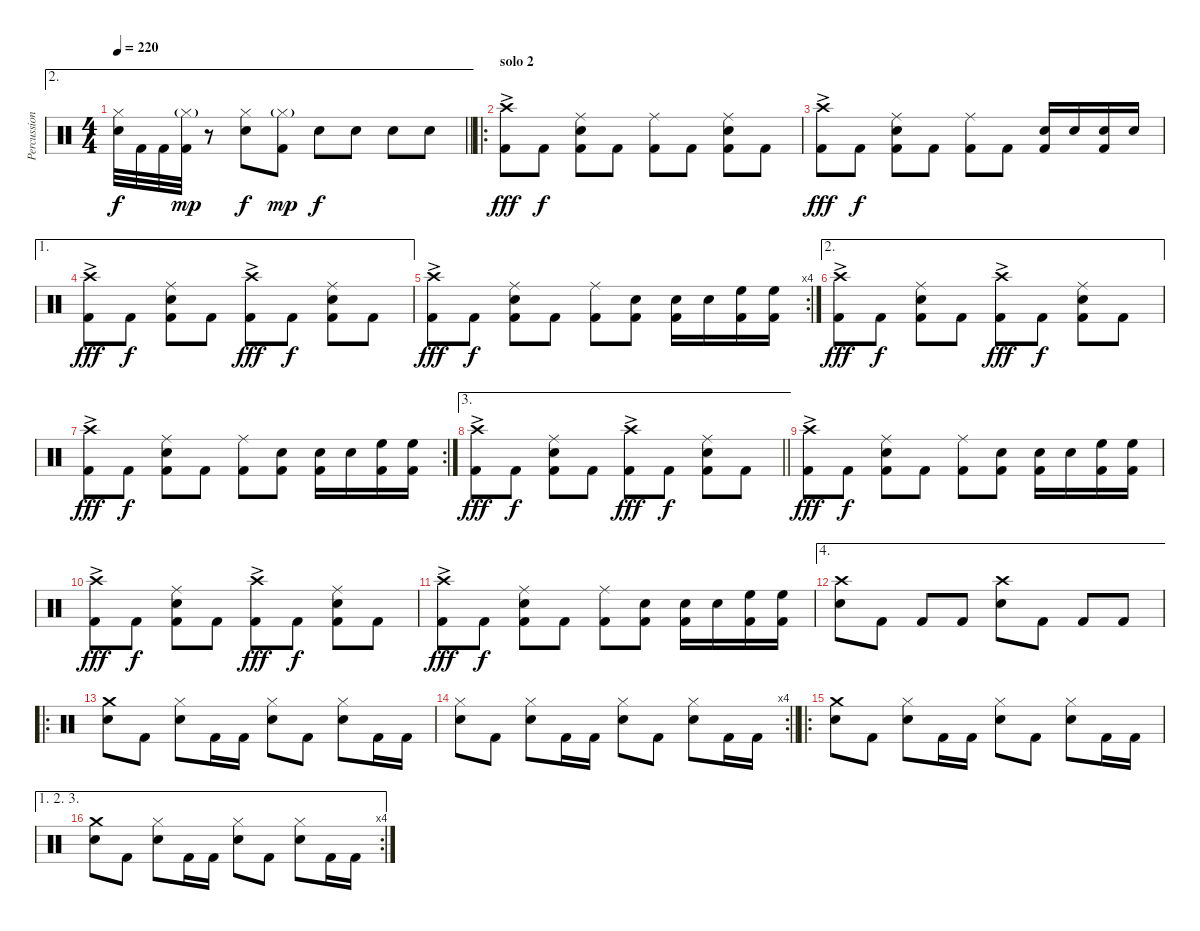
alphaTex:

\track ("Percussion" "Percussion") {instrument percussion}
\staff {score}
\articulation defaults
\ae 2
\ts (4 4)
\tempo 220
\clef neutral
\barLineRight lightlight
\ks c
("Hi-Hat (closed)" "Electric Snare (hit)").32{dy f} "Kick (hit) 2".32 "Kick (hit) 2".32 ("Hi-Hat (closed)"{g} "Kick (hit) 2").32{dy mp} r.8 ("Hi-Hat (closed)" "Electric Snare (hit)").8{dy f} ("Hi-Hat (closed)"{g} "Kick (hit) 2").8{dy mp} "Electric Snare (hit)".8{dy f} "Electric Snare (hit)".8 "Electric Snare (hit)".8 "Electric Snare (hit)".8 |
\ro
\section ("" "solo 2")
("Crash high (hit)"{ac} "Kick (hit) 2").8{dy fff} "Kick (hit) 2".8{dy f} ("Ride (middle)" "Electric Snare (hit)" "Kick (hit) 2").8 "Kick (hit) 2".8 ("Ride (middle)" "Kick (hit) 2").8 "Kick (hit) 2".8 ("Ride (middle)" "Electric Snare (hit)" "Kick (hit) 2").8 "Kick (hit) 2".8 |
("Crash high (hit)"{ac} "Kick (hit) 2").8{dy fff} "Kick (hit) 2".8{dy f} ("Ride (middle)" "Electric Snare (hit)" "Kick (hit) 2").8 "Kick (hit) 2".8 ("Ride (middle)" "Kick (hit) 2").8 "Kick (hit) 2".8 ("Electric Snare (hit)" "Kick (hit) 2").16 "Electric Snare (hit)".16 ("Electric Snare (hit)" "Kick (hit) 2").16 "Electric Snare (hit)".16 |
\ae 1
("Crash high (hit)"{ac} "Kick (hit) 2").8{dy fff} "Kick (hit) 2".8{dy f} ("Ride (middle)" "Electric Snare (hit)" "Kick (hit) 2").8 "Kick (hit) 2".8 ("Crash high (hit)"{ac} "Kick (hit) 2").8{dy fff} "Kick (hit) 2".8{dy f} ("Ride (middle)" "Electric Snare (hit)" "Kick (hit) 2").8 "Kick (hit) 2".8 |
\rc 4
("Crash high (hit)"{ac} "Kick (hit) 2").8{dy fff} "Kick (hit) 2".8{dy f} ("Ride (middle)" "Electric Snare (hit)" "Kick (hit) 2").8 "Kick (hit) 2".8 ("Ride (middle)" "Kick (hit) 2").8 ("Electric Snare (hit)" "Kick (hit) 2").8 ("Electric Snare (hit)" "Kick (hit) 2").16 "Electric Snare (hit)".16 ("High Floor Tom (hit)" "Kick (hit) 2").16 ("High Floor Tom (hit)" "Kick (hit) 2").16 |
\ae 2
("Crash high (hit)"{ac} "Kick (hit) 2").8{dy fff} "Kick (hit) 2".8{dy f} ("Ride (middle)" "Electric Snare (hit)" "Kick (hit) 2").8 "Kick (hit) 2".8 ("Crash high (hit)"{ac} "Kick (hit) 2").8{dy fff} "Kick (hit) 2".8{dy f} ("Ride (middle)" "Electric Snare (hit)" "Kick (hit) 2").8 "Kick (hit) 2".8 |
\rc 2
("Crash high (hit)"{ac} "Kick (hit) 2").8{dy fff} "Kick (hit) 2".8{dy f} ("Ride (middle)" "Electric Snare (hit)" "Kick (hit) 2").8 "Kick (hit) 2".8 ("Ride (middle)" "Kick (hit) 2").8 ("Electric Snare (hit)" "Kick (hit) 2").8 ("Electric Snare (hit)" "Kick (hit) 2").16 "Electric Snare (hit)".16 ("High Floor Tom (hit)" "Kick (hit) 2").16 ("High Floor Tom (hit)" "Kick (hit) 2").16 |
\ae 3
\barLineRight lightlight
("Crash high (hit)"{ac} "Kick (hit) 2").8{dy fff} "Kick (hit) 2".8{dy f} ("Ride (middle)" "Electric Snare (hit)" "Kick (hit) 2").8 "Kick (hit) 2".8 ("Crash high (hit)"{ac} "Kick (hit) 2").8{dy fff} "Kick (hit) 2".8{dy f} ("Ride (middle)" "Electric Snare (hit)" "Kick (hit) 2").8 "Kick (hit) 2".8 |
\section ("" "")
("Crash high (hit)"{ac} "Kick (hit) 2").8{dy fff} "Kick (hit) 2".8{dy f} ("Ride (middle)" "Electric Snare (hit)" "Kick (hit) 2").8 "Kick (hit) 2".8 ("Ride (middle)" "Kick (hit) 2").8 ("Electric Snare (hit)" "Kick (hit) 2").8 ("Electric Snare (hit)" "Kick (hit) 2").16 "Electric Snare (hit)".16 ("High Floor Tom (hit)" "Kick (hit) 2").16 ("High Floor Tom (hit)" "Kick (hit) 2").16 |
("Crash high (hit)"{ac} "Kick (hit) 2").8{dy fff} "Kick (hit) 2".8{dy f} ("Ride (middle)" "Electric Snare (hit)" "Kick (hit) 2").8 "Kick (hit) 2".8 ("Crash high (hit)"{ac} "Kick (hit) 2").8{dy fff} "Kick (hit) 2".8{dy f} ("Ride (middle)" "Electric Snare (hit)" "Kick (hit) 2").8 "Kick (hit) 2".8 |
("Crash high (hit)"{ac} "Kick (hit) 2").8{dy fff} "Kick (hit) 2".8{dy f} ("Ride (middle)" "Electric Snare (hit)" "Kick (hit) 2").8 "Kick (hit) 2".8 ("Ride (middle)" "Kick (hit) 2").8 ("Electric Snare (hit)" "Kick (hit) 2").8 ("Electric Snare (hit)" "Kick (hit) 2").16 "Electric Snare (hit)".16 ("High Floor Tom (hit)" "Kick (hit) 2").16 ("High Floor Tom (hit)" "Kick (hit) 2").16 |
\ae 4
("Crash high (hit)" "Electric Snare (hit)").8 "Kick (hit) 2".8 "Kick (hit) 2".8 "Kick (hit) 2".8 ("Crash high (hit)" "Electric Snare (hit)").8 "Kick (hit) 2".8 "Kick (hit) 2".8 "Kick (hit) 2".8 |
\ro
("Crash medium (hit)" "Electric Snare (hit)").8 "Kick (hit) 2".8 ("Hi-Hat (closed)" "Electric Snare (hit)").8 "Kick (hit) 2".16 "Kick (hit) 2".16 ("Hi-Hat (closed)" "Electric Snare (hit)").8 "Kick (hit) 2".8 ("Hi-Hat (closed)" "Electric Snare (hit)").8 "Kick (hit) 2".16 "Kick (hit) 2".16 |
\rc 4
\barLineRight lightlight
("Hi-Hat (closed)" "Electric Snare (hit)").8 "Kick (hit) 2".8 ("Hi-Hat (closed)" "Electric Snare (hit)").8 "Kick (hit) 2".16 "Kick (hit) 2".16 ("Hi-Hat (closed)" "Electric Snare (hit)").8 "Kick (hit) 2".8 ("Hi-Hat (closed)" "Electric Snare (hit)").8 "Kick (hit) 2".16 "Kick (hit) 2".16 |
\ro
("Crash medium (hit)" "Electric Snare (hit)").8 "Kick (hit) 2".8 ("Hi-Hat (closed)" "Electric Snare (hit)").8 "Kick (hit) 2".16 "Kick (hit) 2".16 ("Hi-Hat (closed)" "Electric Snare (hit)").8 "Kick (hit) 2".8 ("Hi-Hat (closed)" "Electric Snare (hit)").8 "Kick (hit) 2".16 "Kick (hit) 2".16 |
\ae (1 2 3)
\rc 4
("Crash medium (hit)" "Electric Snare (hit)").8 "Kick (hit) 2".8 ("Hi-Hat (closed)" "Electric Snare (hit)").8 "Kick (hit) 2".16 "Kick (hit) 2".16 ("Hi-Hat (closed)" "Electric Snare (hit)").8 "Kick (hit) 2".8 ("Hi-Hat (closed)" "Electric Snare (hit)").8 "Kick (hit) 2".16 "Kick (hit) 2".16
